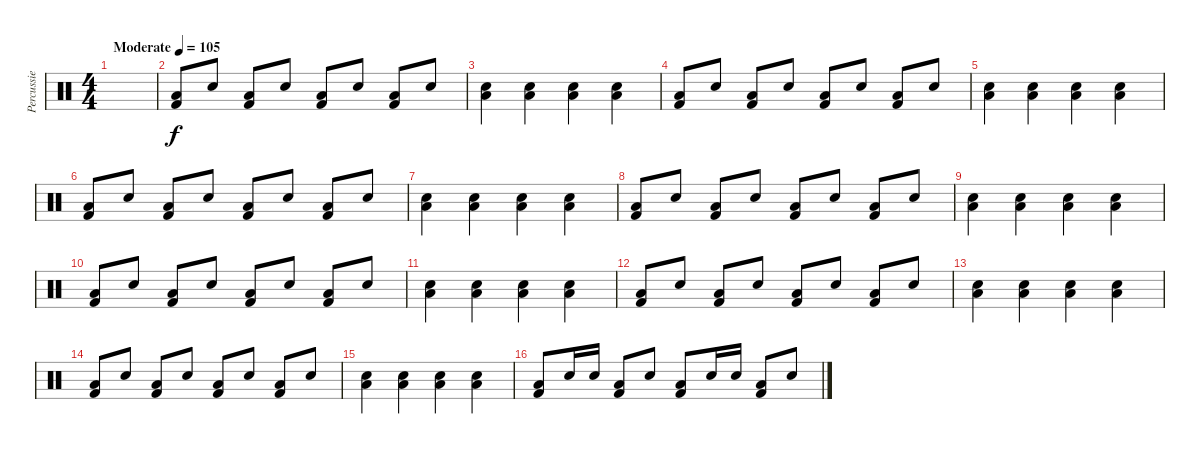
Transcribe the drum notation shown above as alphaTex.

\track ("Percussie" "Percussie") {instrument percussion}
\staff {score}
\articulation defaults
\ts (4 4)
\tempo (105 "Moderate")
\clef neutral
\ks c
|
("Low Floor Tom (hit)" "Kick (hit) 2").8 "Snare (hit) 2".8 ("Low Floor Tom (hit)" "Kick (hit) 2").8 "Snare (hit) 2".8 ("Low Floor Tom (hit)" "Kick (hit) 2").8 "Snare (hit) 2".8 ("Low Floor Tom (hit)" "Kick (hit) 2").8 "Snare (hit) 2".8 |
("Low Floor Tom (hit)" "Snare (hit) 2").4 ("Low Floor Tom (hit)" "Snare (hit) 2").4 ("Low Floor Tom (hit)" "Snare (hit) 2").4 ("Low Floor Tom (hit)" "Snare (hit) 2").4 |
("Low Floor Tom (hit)" "Kick (hit) 2").8 "Snare (hit) 2".8 ("Low Floor Tom (hit)" "Kick (hit) 2").8 "Snare (hit) 2".8 ("Low Floor Tom (hit)" "Kick (hit) 2").8 "Snare (hit) 2".8 ("Low Floor Tom (hit)" "Kick (hit) 2").8 "Snare (hit) 2".8 |
("Low Floor Tom (hit)" "Snare (hit) 2").4 ("Low Floor Tom (hit)" "Snare (hit) 2").4 ("Low Floor Tom (hit)" "Snare (hit) 2").4 ("Low Floor Tom (hit)" "Snare (hit) 2").4 |
("Low Floor Tom (hit)" "Kick (hit) 2").8 "Snare (hit) 2".8 ("Low Floor Tom (hit)" "Kick (hit) 2").8 "Snare (hit) 2".8 ("Low Floor Tom (hit)" "Kick (hit) 2").8 "Snare (hit) 2".8 ("Low Floor Tom (hit)" "Kick (hit) 2").8 "Snare (hit) 2".8 |
("Low Floor Tom (hit)" "Snare (hit) 2").4 ("Low Floor Tom (hit)" "Snare (hit) 2").4 ("Low Floor Tom (hit)" "Snare (hit) 2").4 ("Low Floor Tom (hit)" "Snare (hit) 2").4 |
("Low Floor Tom (hit)" "Kick (hit) 2").8 "Snare (hit) 2".8 ("Low Floor Tom (hit)" "Kick (hit) 2").8 "Snare (hit) 2".8 ("Low Floor Tom (hit)" "Kick (hit) 2").8 "Snare (hit) 2".8 ("Low Floor Tom (hit)" "Kick (hit) 2").8 "Snare (hit) 2".8 |
("Low Floor Tom (hit)" "Snare (hit) 2").4 ("Low Floor Tom (hit)" "Snare (hit) 2").4 ("Low Floor Tom (hit)" "Snare (hit) 2").4 ("Low Floor Tom (hit)" "Snare (hit) 2").4 |
("Low Floor Tom (hit)" "Kick (hit) 2").8 "Snare (hit) 2".8 ("Low Floor Tom (hit)" "Kick (hit) 2").8 "Snare (hit) 2".8 ("Low Floor Tom (hit)" "Kick (hit) 2").8 "Snare (hit) 2".8 ("Low Floor Tom (hit)" "Kick (hit) 2").8 "Snare (hit) 2".8 |
("Low Floor Tom (hit)" "Snare (hit) 2").4 ("Low Floor Tom (hit)" "Snare (hit) 2").4 ("Low Floor Tom (hit)" "Snare (hit) 2").4 ("Low Floor Tom (hit)" "Snare (hit) 2").4 |
("Low Floor Tom (hit)" "Kick (hit) 2").8 "Snare (hit) 2".8 ("Low Floor Tom (hit)" "Kick (hit) 2").8 "Snare (hit) 2".8 ("Low Floor Tom (hit)" "Kick (hit) 2").8 "Snare (hit) 2".8 ("Low Floor Tom (hit)" "Kick (hit) 2").8 "Snare (hit) 2".8 |
("Low Floor Tom (hit)" "Snare (hit) 2").4 ("Low Floor Tom (hit)" "Snare (hit) 2").4 ("Low Floor Tom (hit)" "Snare (hit) 2").4 ("Low Floor Tom (hit)" "Snare (hit) 2").4 |
("Low Floor Tom (hit)" "Kick (hit) 2").8 "Snare (hit) 2".8 ("Low Floor Tom (hit)" "Kick (hit) 2").8 "Snare (hit) 2".8 ("Low Floor Tom (hit)" "Kick (hit) 2").8 "Snare (hit) 2".8 ("Low Floor Tom (hit)" "Kick (hit) 2").8 "Snare (hit) 2".8 |
("Low Floor Tom (hit)" "Snare (hit) 2").4 ("Low Floor Tom (hit)" "Snare (hit) 2").4 ("Low Floor Tom (hit)" "Snare (hit) 2").4 ("Low Floor Tom (hit)" "Snare (hit) 2").4 |
("Low Floor Tom (hit)" "Kick (hit) 2").8 "Snare (hit) 2".16 "Snare (hit) 2".16 ("Low Floor Tom (hit)" "Kick (hit) 2").8 "Snare (hit) 2".8 ("Low Floor Tom (hit)" "Kick (hit) 2").8 "Snare (hit) 2".16 "Snare (hit) 2".16 ("Low Floor Tom (hit)" "Kick (hit) 2").8 "Snare (hit) 2".8
